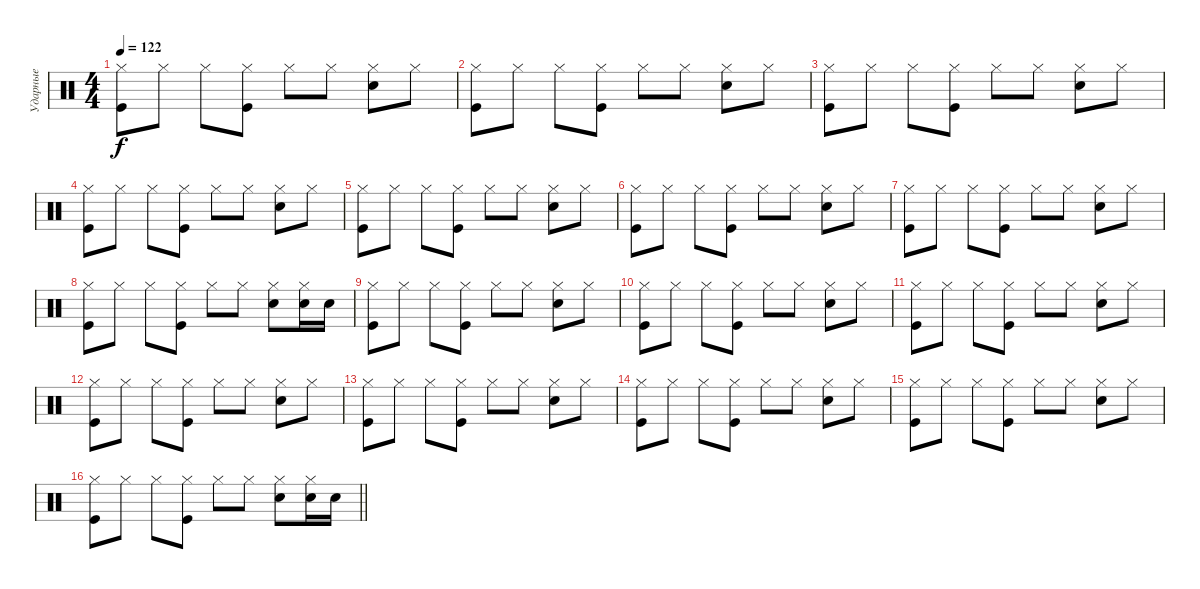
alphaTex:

\track ("Ударные" "Ударные") {instrument percussion}
\staff {score}
\articulation defaults
\ts (4 4)
\section ("" "")
\tempo 122
\clef neutral
\ks c
("Hi-Hat (closed)" "Kick (hit)").8{dy f} "Hi-Hat (closed)".8 "Hi-Hat (closed)".8 ("Kick (hit)" "Hi-Hat (closed)").8 "Hi-Hat (closed)".8 "Hi-Hat (closed)".8 ("Electric Snare (hit)" "Hi-Hat (closed)").8 "Hi-Hat (closed)".8 |
("Hi-Hat (closed)" "Kick (hit)").8 "Hi-Hat (closed)".8 "Hi-Hat (closed)".8 ("Kick (hit)" "Hi-Hat (closed)").8 "Hi-Hat (closed)".8 "Hi-Hat (closed)".8 ("Electric Snare (hit)" "Hi-Hat (closed)").8 "Hi-Hat (closed)".8 |
("Hi-Hat (closed)" "Kick (hit)").8 "Hi-Hat (closed)".8 "Hi-Hat (closed)".8 ("Kick (hit)" "Hi-Hat (closed)").8 "Hi-Hat (closed)".8 "Hi-Hat (closed)".8 ("Electric Snare (hit)" "Hi-Hat (closed)").8 "Hi-Hat (closed)".8 |
("Hi-Hat (closed)" "Kick (hit)").8 "Hi-Hat (closed)".8 "Hi-Hat (closed)".8 ("Kick (hit)" "Hi-Hat (closed)").8 "Hi-Hat (closed)".8 "Hi-Hat (closed)".8 ("Electric Snare (hit)" "Hi-Hat (closed)").8 "Hi-Hat (closed)".8 |
("Hi-Hat (closed)" "Kick (hit)").8 "Hi-Hat (closed)".8 "Hi-Hat (closed)".8 ("Kick (hit)" "Hi-Hat (closed)").8 "Hi-Hat (closed)".8 "Hi-Hat (closed)".8 ("Electric Snare (hit)" "Hi-Hat (closed)").8 "Hi-Hat (closed)".8 |
("Hi-Hat (closed)" "Kick (hit)").8 "Hi-Hat (closed)".8 "Hi-Hat (closed)".8 ("Kick (hit)" "Hi-Hat (closed)").8 "Hi-Hat (closed)".8 "Hi-Hat (closed)".8 ("Electric Snare (hit)" "Hi-Hat (closed)").8 "Hi-Hat (closed)".8 |
("Hi-Hat (closed)" "Kick (hit)").8 "Hi-Hat (closed)".8 "Hi-Hat (closed)".8 ("Kick (hit)" "Hi-Hat (closed)").8 "Hi-Hat (closed)".8 "Hi-Hat (closed)".8 ("Electric Snare (hit)" "Hi-Hat (closed)").8 "Hi-Hat (closed)".8 |
("Hi-Hat (closed)" "Kick (hit)").8 "Hi-Hat (closed)".8 "Hi-Hat (closed)".8 ("Kick (hit)" "Hi-Hat (closed)").8 "Hi-Hat (closed)".8 "Hi-Hat (closed)".8 ("Electric Snare (hit)" "Hi-Hat (closed)").8 ("Electric Snare (hit)" "Hi-Hat (closed)").16 "Electric Snare (hit)".16 |
("Hi-Hat (closed)" "Kick (hit)").8 "Hi-Hat (closed)".8 "Hi-Hat (closed)".8 ("Kick (hit)" "Hi-Hat (closed)").8 "Hi-Hat (closed)".8 "Hi-Hat (closed)".8 ("Electric Snare (hit)" "Hi-Hat (closed)").8 "Hi-Hat (closed)".8 |
("Hi-Hat (closed)" "Kick (hit)").8 "Hi-Hat (closed)".8 "Hi-Hat (closed)".8 ("Kick (hit)" "Hi-Hat (closed)").8 "Hi-Hat (closed)".8 "Hi-Hat (closed)".8 ("Electric Snare (hit)" "Hi-Hat (closed)").8 "Hi-Hat (closed)".8 |
("Hi-Hat (closed)" "Kick (hit)").8 "Hi-Hat (closed)".8 "Hi-Hat (closed)".8 ("Kick (hit)" "Hi-Hat (closed)").8 "Hi-Hat (closed)".8 "Hi-Hat (closed)".8 ("Electric Snare (hit)" "Hi-Hat (closed)").8 "Hi-Hat (closed)".8 |
("Hi-Hat (closed)" "Kick (hit)").8 "Hi-Hat (closed)".8 "Hi-Hat (closed)".8 ("Kick (hit)" "Hi-Hat (closed)").8 "Hi-Hat (closed)".8 "Hi-Hat (closed)".8 ("Electric Snare (hit)" "Hi-Hat (closed)").8 "Hi-Hat (closed)".8 |
("Hi-Hat (closed)" "Kick (hit)").8 "Hi-Hat (closed)".8 "Hi-Hat (closed)".8 ("Kick (hit)" "Hi-Hat (closed)").8 "Hi-Hat (closed)".8 "Hi-Hat (closed)".8 ("Electric Snare (hit)" "Hi-Hat (closed)").8 "Hi-Hat (closed)".8 |
("Hi-Hat (closed)" "Kick (hit)").8 "Hi-Hat (closed)".8 "Hi-Hat (closed)".8 ("Kick (hit)" "Hi-Hat (closed)").8 "Hi-Hat (closed)".8 "Hi-Hat (closed)".8 ("Electric Snare (hit)" "Hi-Hat (closed)").8 "Hi-Hat (closed)".8 |
("Hi-Hat (closed)" "Kick (hit)").8 "Hi-Hat (closed)".8 "Hi-Hat (closed)".8 ("Kick (hit)" "Hi-Hat (closed)").8 "Hi-Hat (closed)".8 "Hi-Hat (closed)".8 ("Electric Snare (hit)" "Hi-Hat (closed)").8 "Hi-Hat (closed)".8 |
\barLineRight lightlight
("Hi-Hat (closed)" "Kick (hit)").8 "Hi-Hat (closed)".8 "Hi-Hat (closed)".8 ("Kick (hit)" "Hi-Hat (closed)").8 "Hi-Hat (closed)".8 "Hi-Hat (closed)".8 ("Electric Snare (hit)" "Hi-Hat (closed)").8 ("Electric Snare (hit)" "Hi-Hat (closed)").16 "Electric Snare (hit)".16
